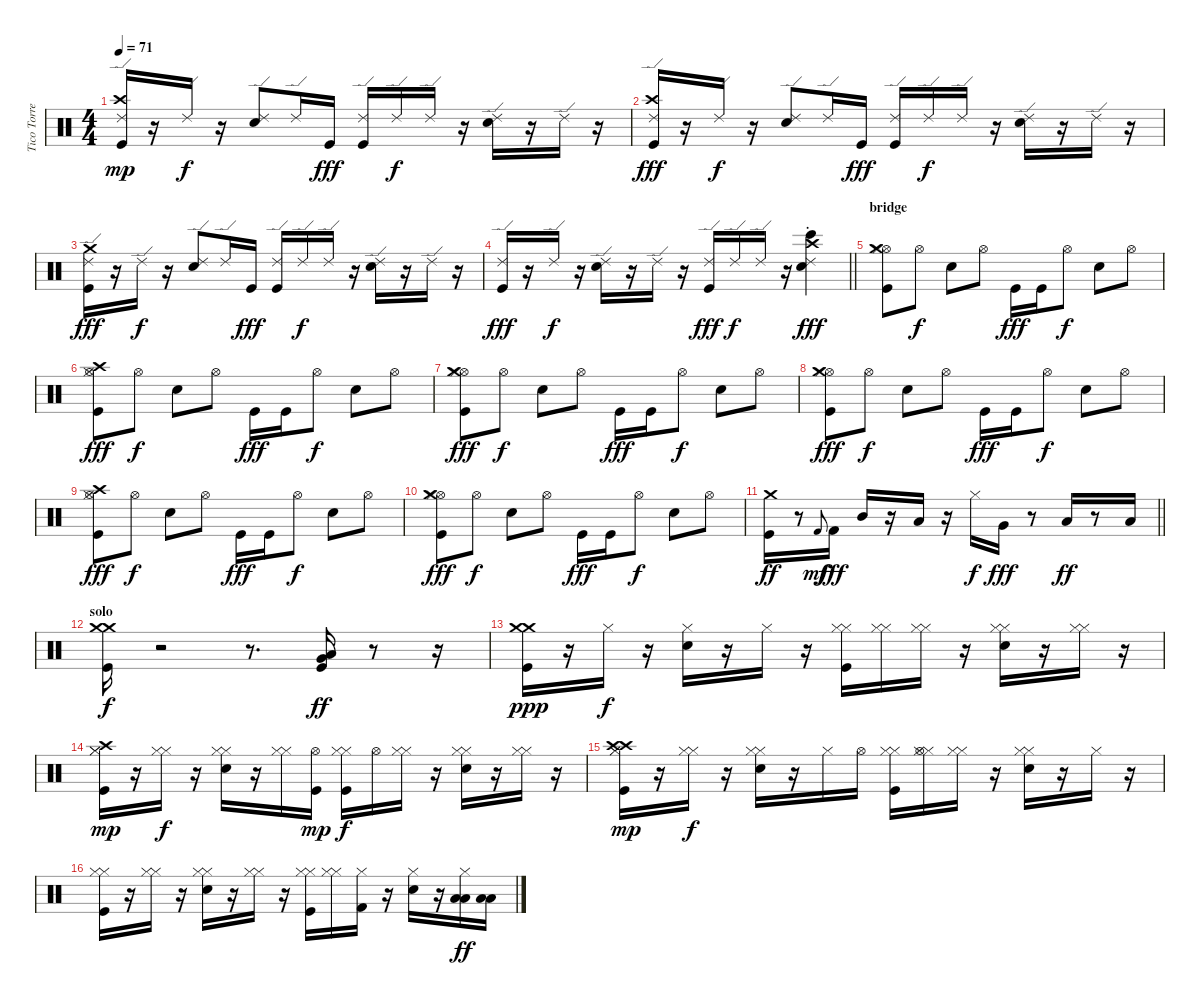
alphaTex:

\track ("Tico Torres" "Tico Torre") {instrument percussion}
\staff {score}
\articulation defaults
\ts (4 4)
\tempo 71
\clef neutral
\ks c
("Kick (hit)" "Crash high (hit)" "Ride (edge) 2").16{dy mp} r.16 "Ride (edge) 2".16{dy f} r.16 ("Snare (hit) 2" "Ride (edge) 2").8 "Ride (edge) 2".16 "Kick (hit)".16{dy fff} ("Kick (hit)" "Ride (edge) 2").16 "Ride (edge) 2".16{dy f} "Ride (edge) 2".16 r.16 ("Snare (hit) 2" "Ride (edge) 2").16 r.16 "Ride (edge) 2".16 r.16 |
("Kick (hit)" "Crash high (hit)" "Ride (edge) 2").16{dy fff} r.16 "Ride (edge) 2".16{dy f} r.16 ("Snare (hit) 2" "Ride (edge) 2").8 "Ride (edge) 2".16 "Kick (hit)".16{dy fff} ("Kick (hit)" "Ride (edge) 2").16 "Ride (edge) 2".16{dy f} "Ride (edge) 2".16 r.16 ("Snare (hit) 2" "Ride (edge) 2").16 r.16 "Ride (edge) 2".16 r.16 |
("Kick (hit)" "Crash medium (hit)" "Ride (edge) 2").16{dy fff} r.16 "Ride (edge) 2".16{dy f} r.16 ("Snare (hit) 2" "Ride (edge) 2").8 "Ride (edge) 2".16 "Kick (hit)".16{dy fff} ("Kick (hit)" "Ride (edge) 2").16 "Ride (edge) 2".16{dy f} "Ride (edge) 2".16 r.16 ("Snare (hit) 2" "Ride (edge) 2").16 r.16 "Ride (edge) 2".16 r.16 |
\barLineRight lightlight
("Kick (hit)" "Ride (edge) 2").16{dy fff} r.16 "Ride (edge) 2".16{dy f} r.16 ("Snare (hit) 2" "Ride (edge) 2").16 r.16 "Ride (edge) 2".16 r.16 ("Kick (hit)" "Ride (edge) 2").16{dy fff} "Ride (edge) 2".16{dy f} "Ride (edge) 2".16 r.16 ("Snare (hit) 2" "Crash high (hit)" "Ride (choke) 2" "Bongo High (hit)").4{dy fff} |
\section ("" "bridge")
("Hi-Hat (open)" "Hi-Hat (closed)" "Kick (hit)" "Crash medium (hit)").8 "Hi-Hat (open)".8{dy f} "Snare (hit) 2".8 "Hi-Hat (open)".8 "Kick (hit)".16{dy fff} "Kick (hit)".16 "Hi-Hat (open)".8{dy f} "Snare (hit) 2".8 "Hi-Hat (open)".8 |
("Hi-Hat (open)" "Hi-Hat (closed)" "Kick (hit)" "Crash high (hit)").8{dy fff} "Hi-Hat (open)".8{dy f} "Snare (hit) 2".8 "Hi-Hat (open)".8 "Kick (hit)".16{dy fff} "Kick (hit)".16 "Hi-Hat (open)".8{dy f} "Snare (hit) 2".8 "Hi-Hat (open)".8 |
("Hi-Hat (open)" "Hi-Hat (closed)" "Kick (hit)" "Crash medium (hit)").8{dy fff} "Hi-Hat (open)".8{dy f} "Snare (hit) 2".8 "Hi-Hat (open)".8 "Kick (hit)".16{dy fff} "Kick (hit)".16 "Hi-Hat (open)".8{dy f} "Snare (hit) 2".8 "Hi-Hat (open)".8 |
("Hi-Hat (open)" "Hi-Hat (closed)" "Kick (hit)" "Crash medium (hit)").8{dy fff} "Hi-Hat (open)".8{dy f} "Snare (hit) 2".8 "Hi-Hat (open)".8 "Kick (hit)".16{dy fff} "Kick (hit)".16 "Hi-Hat (open)".8{dy f} "Snare (hit) 2".8 "Hi-Hat (open)".8 |
("Hi-Hat (open)" "Hi-Hat (closed)" "Kick (hit)" "Crash high (hit)").8{dy fff} "Hi-Hat (open)".8{dy f} "Snare (hit) 2".8 "Hi-Hat (open)".8 "Kick (hit)".16{dy fff} "Kick (hit)".16 "Hi-Hat (open)".8{dy f} "Snare (hit) 2".8 "Hi-Hat (open)".8 |
("Hi-Hat (open)" "Hi-Hat (closed)" "Kick (hit)" "Crash medium (hit)").8{dy fff} "Hi-Hat (open)".8{dy f} "Snare (hit) 2".8 "Hi-Hat (open)".8 "Kick (hit)".16{dy fff} "Kick (hit)".16 "Hi-Hat (open)".8{dy f} "Snare (hit) 2".8 "Hi-Hat (open)".8 |
\barLineRight lightlight
("Crash medium (hit)" "Kick (hit)").16{dy ff} r.8 "Kick (hit) 2".8{gr onbeat dy mf} "Kick (hit) 2".16{dy fff} "Mid Tom (hit)".16 r.16 "Low Tom (hit)".16 r.16 "Hi-Hat (closed)".16{dy f} "Very Low Tom (hit)".16{dy fff} r.8 "Low Floor Tom (hit)".16{dy ff} r.8 "Low Floor Tom (hit)".16 |
\section ("" "solo")
("Crash medium (hit)" "Kick (hit)" "Crash medium (hit)").16{dy f} r.2 r.8{d} ("Very Low Tom (hit)" "Kick (hit)" "Low Floor Tom (hit)").16{dy ff} r.8 r.16 |
("Crash medium (hit)" "Kick (hit)" "Crash medium (hit)").16{dy ppp} r.16 "Hi-Hat (closed)".16{dy f} r.16 ("Hi-Hat (closed)" "Snare (hit) 2").16 r.16 "Hi-Hat (closed)".16 r.16 ("Hi-Hat (closed)" "Hi-Hat (closed)" "Kick (hit)").16 ("Hi-Hat (closed)" "Hi-Hat (closed)").16 ("Hi-Hat (closed)" "Hi-Hat (closed)").16 r.16 ("Hi-Hat (closed)" "Hi-Hat (closed)" "Snare (hit) 2").16 r.16 ("Hi-Hat (closed)" "Hi-Hat (closed)").16 r.16 |
("Hi-Hat (closed)" "Kick (hit)" "Crash high (hit)" "Hi-Hat (closed)").16{dy mp} r.16 ("Hi-Hat (closed)" "Hi-Hat (closed)").16{dy f} r.16 ("Hi-Hat (closed)" "Snare (hit) 2" "Hi-Hat (closed)").16 r.16 ("Hi-Hat (closed)" "Hi-Hat (closed)").16 ("Kick (hit)" "Hi-Hat (open)").16{dy mp} ("Hi-Hat (closed)" "Kick (hit)" "Hi-Hat (closed)").16{dy f} "Hi-Hat (open)".16 ("Hi-Hat (closed)" "Hi-Hat (closed)").16 r.16 ("Hi-Hat (closed)" "Snare (hit) 2" "Hi-Hat (closed)").16 r.16 ("Hi-Hat (closed)" "Hi-Hat (closed)").16 r.16 |
("Hi-Hat (closed)" "Crash high (hit)" "Hi-Hat (closed)" "Kick (hit)" "Crash high (hit)").16{dy mp} r.16 ("Hi-Hat (closed)" "Hi-Hat (closed)").16{dy f} r.16 ("Hi-Hat (closed)" "Hi-Hat (closed)" "Snare (hit) 2").16 r.16 "Hi-Hat (closed)".16 "Hi-Hat (open)".16 ("Hi-Hat (closed)" "Hi-Hat (closed)" "Kick (hit)").16 ("Hi-Hat (closed)" "Hi-Hat (closed)" "Hi-Hat (open)").16 ("Hi-Hat (closed)" "Hi-Hat (closed)").16 r.16 ("Hi-Hat (closed)" "Hi-Hat (closed)" "Snare (hit) 2").16 r.16 "Hi-Hat (closed)".16 r.16 |
("Hi-Hat (closed)" "Kick (hit)" "Hi-Hat (closed)").16 r.16 ("Hi-Hat (closed)" "Hi-Hat (closed)").16 r.16 ("Hi-Hat (closed)" "Snare (hit) 2" "Hi-Hat (closed)").16 r.16 ("Hi-Hat (closed)" "Hi-Hat (closed)").16 r.16 ("Hi-Hat (closed)" "Kick (hit)" "Hi-Hat (closed)").16 ("Hi-Hat (closed)" "Hi-Hat (closed)").16 ("Hi-Hat (closed)" "Kick (hit) 2").16 r.16 ("Snare (hit) 2" "Hi-Hat (closed)").16 r.16 ("Low Tom (hit)" "Hi-Hat (closed)" "Low Floor Tom (hit)").16{dy ff} ("Low Tom (hit)" "Low Tom (hit)").16
